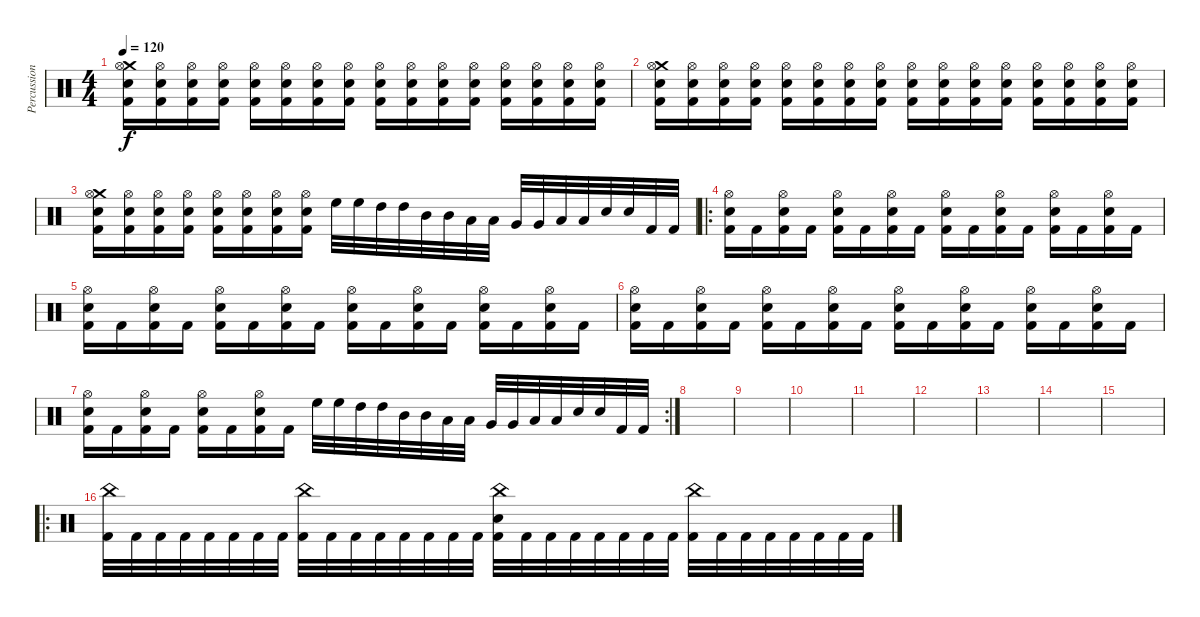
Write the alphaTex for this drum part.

\track ("Percussions" "Percussion") {instrument percussion}
\staff {score}
\articulation defaults
\ts (4 4)
\tempo 120
\clef neutral
\ks c
("Crash medium (hit)" "Hi-Hat (open)" "Electric Snare (hit)" "Kick (hit) 2").16{dy f} ("Hi-Hat (open)" "Electric Snare (hit)" "Kick (hit) 2").16 ("Hi-Hat (open)" "Electric Snare (hit)" "Kick (hit) 2").16 ("Hi-Hat (open)" "Electric Snare (hit)" "Kick (hit) 2").16 ("Hi-Hat (open)" "Electric Snare (hit)" "Kick (hit) 2").16 ("Hi-Hat (open)" "Electric Snare (hit)" "Kick (hit) 2").16 ("Hi-Hat (open)" "Electric Snare (hit)" "Kick (hit) 2").16 ("Hi-Hat (open)" "Electric Snare (hit)" "Kick (hit) 2").16 ("Hi-Hat (open)" "Electric Snare (hit)" "Kick (hit) 2").16 ("Hi-Hat (open)" "Electric Snare (hit)" "Kick (hit) 2").16 ("Hi-Hat (open)" "Electric Snare (hit)" "Kick (hit) 2").16 ("Hi-Hat (open)" "Electric Snare (hit)" "Kick (hit) 2").16 ("Hi-Hat (open)" "Electric Snare (hit)" "Kick (hit) 2").16 ("Hi-Hat (open)" "Electric Snare (hit)" "Kick (hit) 2").16 ("Hi-Hat (open)" "Electric Snare (hit)" "Kick (hit) 2").16 ("Hi-Hat (open)" "Electric Snare (hit)" "Kick (hit) 2").16 |
("Crash medium (hit)" "Hi-Hat (open)" "Electric Snare (hit)" "Kick (hit) 2").16 ("Hi-Hat (open)" "Electric Snare (hit)" "Kick (hit) 2").16 ("Hi-Hat (open)" "Electric Snare (hit)" "Kick (hit) 2").16 ("Hi-Hat (open)" "Electric Snare (hit)" "Kick (hit) 2").16 ("Hi-Hat (open)" "Electric Snare (hit)" "Kick (hit) 2").16 ("Hi-Hat (open)" "Electric Snare (hit)" "Kick (hit) 2").16 ("Hi-Hat (open)" "Electric Snare (hit)" "Kick (hit) 2").16 ("Hi-Hat (open)" "Electric Snare (hit)" "Kick (hit) 2").16 ("Hi-Hat (open)" "Electric Snare (hit)" "Kick (hit) 2").16 ("Hi-Hat (open)" "Electric Snare (hit)" "Kick (hit) 2").16 ("Hi-Hat (open)" "Electric Snare (hit)" "Kick (hit) 2").16 ("Hi-Hat (open)" "Electric Snare (hit)" "Kick (hit) 2").16 ("Hi-Hat (open)" "Electric Snare (hit)" "Kick (hit) 2").16 ("Hi-Hat (open)" "Electric Snare (hit)" "Kick (hit) 2").16 ("Hi-Hat (open)" "Electric Snare (hit)" "Kick (hit) 2").16 ("Hi-Hat (open)" "Electric Snare (hit)" "Kick (hit) 2").16 |
("Crash medium (hit)" "Hi-Hat (open)" "Electric Snare (hit)" "Kick (hit) 2").16 ("Hi-Hat (open)" "Electric Snare (hit)" "Kick (hit) 2").16 ("Hi-Hat (open)" "Electric Snare (hit)" "Kick (hit) 2").16 ("Hi-Hat (open)" "Electric Snare (hit)" "Kick (hit) 2").16 ("Hi-Hat (open)" "Electric Snare (hit)" "Kick (hit) 2").16 ("Hi-Hat (open)" "Electric Snare (hit)" "Kick (hit) 2").16 ("Hi-Hat (open)" "Electric Snare (hit)" "Kick (hit) 2").16 ("Hi-Hat (open)" "Electric Snare (hit)" "Kick (hit) 2").16 "High Floor Tom (hit)".32 "High Floor Tom (hit)".32 "High Tom (hit)".32 "High Tom (hit)".32 "Mid Tom (hit)".32 "Mid Tom (hit)".32 "Low Tom (hit)".32 "Low Tom (hit)".32 "Very Low Tom (hit)".32 "Very Low Tom (hit)".32 "Low Floor Tom (hit)".32 "Low Floor Tom (hit)".32 "Electric Snare (hit)".32 "Electric Snare (hit)".32 "Kick (hit) 2".32 "Kick (hit) 2".32 |
\ro
("Hi-Hat (open)" "Electric Snare (hit)" "Kick (hit) 2").16 "Kick (hit) 2".16 ("Hi-Hat (open)" "Electric Snare (hit)" "Kick (hit) 2").16 "Kick (hit) 2".16 ("Hi-Hat (open)" "Electric Snare (hit)" "Kick (hit) 2").16 "Kick (hit) 2".16 ("Hi-Hat (open)" "Electric Snare (hit)" "Kick (hit) 2").16 "Kick (hit) 2".16 ("Hi-Hat (open)" "Electric Snare (hit)" "Kick (hit) 2").16 "Kick (hit) 2".16 ("Hi-Hat (open)" "Electric Snare (hit)" "Kick (hit) 2").16 "Kick (hit) 2".16 ("Hi-Hat (open)" "Electric Snare (hit)" "Kick (hit) 2").16 "Kick (hit) 2".16 ("Hi-Hat (open)" "Electric Snare (hit)" "Kick (hit) 2").16 "Kick (hit) 2".16 |
("Hi-Hat (open)" "Electric Snare (hit)" "Kick (hit) 2").16 "Kick (hit) 2".16 ("Hi-Hat (open)" "Electric Snare (hit)" "Kick (hit) 2").16 "Kick (hit) 2".16 ("Hi-Hat (open)" "Electric Snare (hit)" "Kick (hit) 2").16 "Kick (hit) 2".16 ("Hi-Hat (open)" "Electric Snare (hit)" "Kick (hit) 2").16 "Kick (hit) 2".16 ("Hi-Hat (open)" "Electric Snare (hit)" "Kick (hit) 2").16 "Kick (hit) 2".16 ("Hi-Hat (open)" "Electric Snare (hit)" "Kick (hit) 2").16 "Kick (hit) 2".16 ("Hi-Hat (open)" "Electric Snare (hit)" "Kick (hit) 2").16 "Kick (hit) 2".16 ("Hi-Hat (open)" "Electric Snare (hit)" "Kick (hit) 2").16 "Kick (hit) 2".16 |
("Hi-Hat (open)" "Electric Snare (hit)" "Kick (hit) 2").16 "Kick (hit) 2".16 ("Hi-Hat (open)" "Electric Snare (hit)" "Kick (hit) 2").16 "Kick (hit) 2".16 ("Hi-Hat (open)" "Electric Snare (hit)" "Kick (hit) 2").16 "Kick (hit) 2".16 ("Hi-Hat (open)" "Electric Snare (hit)" "Kick (hit) 2").16 "Kick (hit) 2".16 ("Hi-Hat (open)" "Electric Snare (hit)" "Kick (hit) 2").16 "Kick (hit) 2".16 ("Hi-Hat (open)" "Electric Snare (hit)" "Kick (hit) 2").16 "Kick (hit) 2".16 ("Hi-Hat (open)" "Electric Snare (hit)" "Kick (hit) 2").16 "Kick (hit) 2".16 ("Hi-Hat (open)" "Electric Snare (hit)" "Kick (hit) 2").16 "Kick (hit) 2".16 |
\rc 2
("Hi-Hat (open)" "Electric Snare (hit)" "Kick (hit) 2").16 "Kick (hit) 2".16 ("Hi-Hat (open)" "Electric Snare (hit)" "Kick (hit) 2").16 "Kick (hit) 2".16 ("Hi-Hat (open)" "Electric Snare (hit)" "Kick (hit) 2").16 "Kick (hit) 2".16 ("Hi-Hat (open)" "Electric Snare (hit)" "Kick (hit) 2").16 "Kick (hit) 2".16 "High Floor Tom (hit)".32 "High Floor Tom (hit)".32 "High Tom (hit)".32 "High Tom (hit)".32 "Mid Tom (hit)".32 "Mid Tom (hit)".32 "Low Tom (hit)".32 "Low Tom (hit)".32 "Very Low Tom (hit)".32 "Very Low Tom (hit)".32 "Low Floor Tom (hit)".32 "Low Floor Tom (hit)".32 "Electric Snare (hit)".32 "Electric Snare (hit)".32 "Kick (hit) 2".32 "Kick (hit) 2".32 |
|
|
|
|
|
|
|
|
\ro
("China (hit)" "Kick (hit) 2").32 "Kick (hit) 2".32 "Kick (hit) 2".32 "Kick (hit) 2".32 "Kick (hit) 2".32 "Kick (hit) 2".32 "Kick (hit) 2".32 "Kick (hit) 2".32 ("China (hit)" "Kick (hit) 2").32 "Kick (hit) 2".32 "Kick (hit) 2".32 "Kick (hit) 2".32 "Kick (hit) 2".32 "Kick (hit) 2".32 "Kick (hit) 2".32 "Kick (hit) 2".32 ("China (hit)" "Electric Snare (hit)" "Kick (hit) 2").32 "Kick (hit) 2".32 "Kick (hit) 2".32 "Kick (hit) 2".32 "Kick (hit) 2".32 "Kick (hit) 2".32 "Kick (hit) 2".32 "Kick (hit) 2".32 ("China (hit)" "Kick (hit) 2").32 "Kick (hit) 2".32 "Kick (hit) 2".32 "Kick (hit) 2".32 "Kick (hit) 2".32 "Kick (hit) 2".32 "Kick (hit) 2".32 "Kick (hit) 2".32
